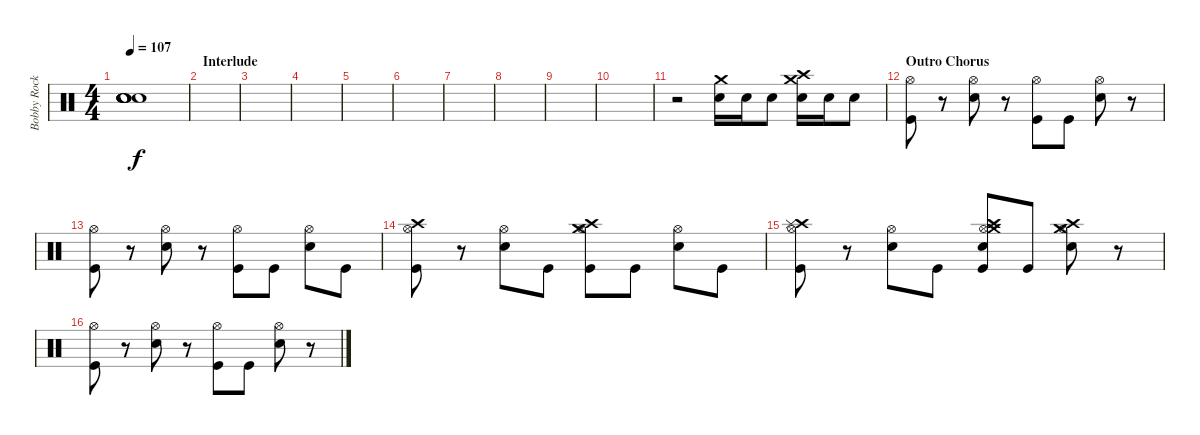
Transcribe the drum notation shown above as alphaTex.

\track ("Bobby Rock - drums" "Bobby Rock") {instrument percussion}
\staff {score}
\articulation defaults
\ts (4 4)
\tempo 107
\clef neutral
\ks c
("Snare (hit)"{t} "Snare (hit)"{t} "Snare (hit)"{t} "Snare (hit)"{t} "Snare (hit)"{t}).1{dy f} |
\section ("" "Interlude")
|
|
|
|
|
|
|
|
|
r.2 ("Crash medium (hit)" "Snare (hit) 2").16 "Snare (hit) 2".16 "Snare (hit) 2".8 ("Crash high (hit)" "Crash medium (hit)" "Snare (hit) 2").16 "Snare (hit) 2".16 "Snare (hit) 2".8 |
\section ("" "Outro Chorus")
("Hi-Hat (open)" "Kick (hit)").8 r.8 ("Hi-Hat (open)" "Snare (hit) 2").8 r.8 ("Hi-Hat (open)" "Kick (hit)").8 "Kick (hit)".8 ("Hi-Hat (open)" "Snare (hit) 2").8 r.8 |
("Hi-Hat (open)" "Kick (hit)").8 r.8 ("Hi-Hat (open)" "Snare (hit) 2").8 r.8 ("Hi-Hat (open)" "Kick (hit)").8 "Kick (hit)".8 ("Hi-Hat (open)" "Snare (hit) 2").8 "Kick (hit)".8 |
("Hi-Hat (open)" "Crash high (hit)" "Kick (hit)").8 r.8 ("Hi-Hat (open)" "Snare (hit) 2").8 "Kick (hit)".8 ("Hi-Hat (open)" "Crash medium (hit)" "Crash high (hit)" "Kick (hit)").8 "Kick (hit)".8 ("Hi-Hat (open)" "Snare (hit) 2").8 "Kick (hit)".8 |
("Hi-Hat (open)" "Crash high (hit)" "Splash (hit)" "Kick (hit)").8 r.8 ("Hi-Hat (open)" "Snare (hit) 2").8 "Kick (hit)".8 ("Hi-Hat (open)" "Crash medium (hit)" "Crash high (hit)" "Snare (hit) 2" "Kick (hit)").8 "Kick (hit)".8 ("Hi-Hat (open)" "Crash high (hit)" "Crash medium (hit)" "Snare (hit) 2").8 r.8 |
("Hi-Hat (open)" "Kick (hit)").8 r.8 ("Hi-Hat (open)" "Snare (hit) 2").8 r.8 ("Hi-Hat (open)" "Kick (hit)").8 "Kick (hit)".8 ("Hi-Hat (open)" "Snare (hit) 2").8 r.8
